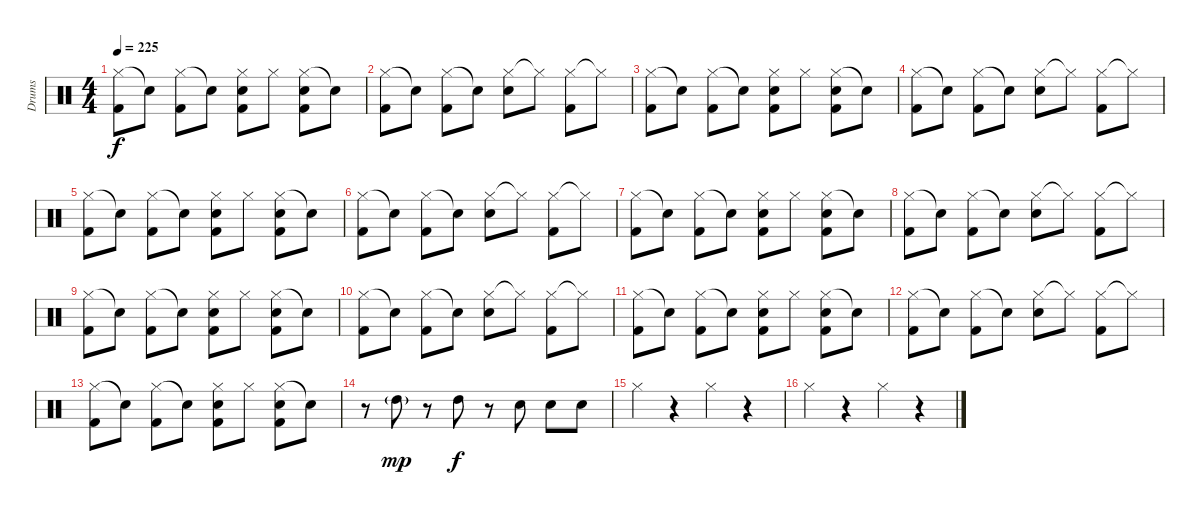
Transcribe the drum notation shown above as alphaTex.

\track ("Drums" "Drums") {instrument percussion}
\staff {score}
\articulation defaults
\ts (4 4)
\tempo 225
\clef neutral
\ks c
("Hi-Hat (closed)" "Kick (hit) 2").8{dy f} "Snare (hit)"{t}.8 ("Hi-Hat (closed)" "Kick (hit) 2").8 "Snare (hit)"{t}.8 ("Hi-Hat (closed)" "Snare (hit) 2" "Kick (hit) 2").8 "Hi-Hat (closed)".8 ("Hi-Hat (closed)" "Snare (hit) 2" "Kick (hit) 2").8 "Snare (hit)"{t}.8 |
("Hi-Hat (closed)" "Kick (hit) 2").8 "Snare (hit)"{t}.8 ("Hi-Hat (closed)" "Kick (hit) 2").8 "Snare (hit)"{t}.8 ("Hi-Hat (closed)" "Snare (hit) 2").8 "Hi-Hat (closed)"{t}.8 ("Hi-Hat (closed)" "Kick (hit) 2").8 "Hi-Hat (closed)"{t}.8 |
("Hi-Hat (closed)" "Kick (hit) 2").8 "Snare (hit)"{t}.8 ("Hi-Hat (closed)" "Kick (hit) 2").8 "Snare (hit)"{t}.8 ("Hi-Hat (closed)" "Snare (hit) 2" "Kick (hit) 2").8 "Hi-Hat (closed)".8 ("Hi-Hat (closed)" "Snare (hit) 2" "Kick (hit) 2").8 "Snare (hit)"{t}.8 |
("Hi-Hat (closed)" "Kick (hit) 2").8 "Snare (hit)"{t}.8 ("Hi-Hat (closed)" "Kick (hit) 2").8 "Snare (hit)"{t}.8 ("Hi-Hat (closed)" "Snare (hit) 2").8 "Hi-Hat (closed)"{t}.8 ("Hi-Hat (closed)" "Kick (hit) 2").8 "Hi-Hat (closed)"{t}.8 |
("Hi-Hat (closed)" "Kick (hit) 2").8 "Snare (hit)"{t}.8 ("Hi-Hat (closed)" "Kick (hit) 2").8 "Snare (hit)"{t}.8 ("Hi-Hat (closed)" "Snare (hit) 2" "Kick (hit) 2").8 "Hi-Hat (closed)".8 ("Hi-Hat (closed)" "Snare (hit) 2" "Kick (hit) 2").8 "Snare (hit)"{t}.8 |
("Hi-Hat (closed)" "Kick (hit) 2").8 "Snare (hit)"{t}.8 ("Hi-Hat (closed)" "Kick (hit) 2").8 "Snare (hit)"{t}.8 ("Hi-Hat (closed)" "Snare (hit) 2").8 "Hi-Hat (closed)"{t}.8 ("Hi-Hat (closed)" "Kick (hit) 2").8 "Hi-Hat (closed)"{t}.8 |
("Hi-Hat (closed)" "Kick (hit) 2").8 "Snare (hit)"{t}.8 ("Hi-Hat (closed)" "Kick (hit) 2").8 "Snare (hit)"{t}.8 ("Hi-Hat (closed)" "Snare (hit) 2" "Kick (hit) 2").8 "Hi-Hat (closed)".8 ("Hi-Hat (closed)" "Snare (hit) 2" "Kick (hit) 2").8 "Snare (hit)"{t}.8 |
("Hi-Hat (closed)" "Kick (hit) 2").8 "Snare (hit)"{t}.8 ("Hi-Hat (closed)" "Kick (hit) 2").8 "Snare (hit)"{t}.8 ("Hi-Hat (closed)" "Snare (hit) 2").8 "Hi-Hat (closed)"{t}.8 ("Hi-Hat (closed)" "Kick (hit) 2").8 "Hi-Hat (closed)"{t}.8 |
("Hi-Hat (closed)" "Kick (hit) 2").8 "Snare (hit)"{t}.8 ("Hi-Hat (closed)" "Kick (hit) 2").8 "Snare (hit)"{t}.8 ("Hi-Hat (closed)" "Snare (hit) 2" "Kick (hit) 2").8 "Hi-Hat (closed)".8 ("Hi-Hat (closed)" "Snare (hit) 2" "Kick (hit) 2").8 "Snare (hit)"{t}.8 |
("Hi-Hat (closed)" "Kick (hit) 2").8 "Snare (hit)"{t}.8 ("Hi-Hat (closed)" "Kick (hit) 2").8 "Snare (hit)"{t}.8 ("Hi-Hat (closed)" "Snare (hit) 2").8 "Hi-Hat (closed)"{t}.8 ("Hi-Hat (closed)" "Kick (hit) 2").8 "Hi-Hat (closed)"{t}.8 |
("Hi-Hat (closed)" "Kick (hit) 2").8 "Snare (hit)"{t}.8 ("Hi-Hat (closed)" "Kick (hit) 2").8 "Snare (hit)"{t}.8 ("Hi-Hat (closed)" "Snare (hit) 2" "Kick (hit) 2").8 "Hi-Hat (closed)".8 ("Hi-Hat (closed)" "Snare (hit) 2" "Kick (hit) 2").8 "Snare (hit)"{t}.8 |
("Hi-Hat (closed)" "Kick (hit) 2").8 "Snare (hit)"{t}.8 ("Hi-Hat (closed)" "Kick (hit) 2").8 "Snare (hit)"{t}.8 ("Hi-Hat (closed)" "Snare (hit) 2").8 "Hi-Hat (closed)"{t}.8 ("Hi-Hat (closed)" "Kick (hit) 2").8 "Hi-Hat (closed)"{t}.8 |
("Hi-Hat (closed)" "Kick (hit) 2").8 "Snare (hit)"{t}.8 ("Hi-Hat (closed)" "Kick (hit) 2").8 "Snare (hit)"{t}.8 ("Hi-Hat (closed)" "Snare (hit) 2" "Kick (hit) 2").8 "Hi-Hat (closed)".8 ("Hi-Hat (closed)" "Snare (hit) 2" "Kick (hit) 2").8 "Snare (hit)"{t}.8 |
r.8 "High Tom (hit)"{g}.8{dy mp} r.8 "High Tom (hit)".8{dy f} r.8 "Snare (hit) 2".8 "Snare (hit) 2".8 "Snare (hit) 2".8 |
"Hi-Hat (closed)".4 r.4 "Hi-Hat (closed)".4 r.4 |
"Hi-Hat (closed)".4 r.4 "Hi-Hat (closed)".4 r.4
